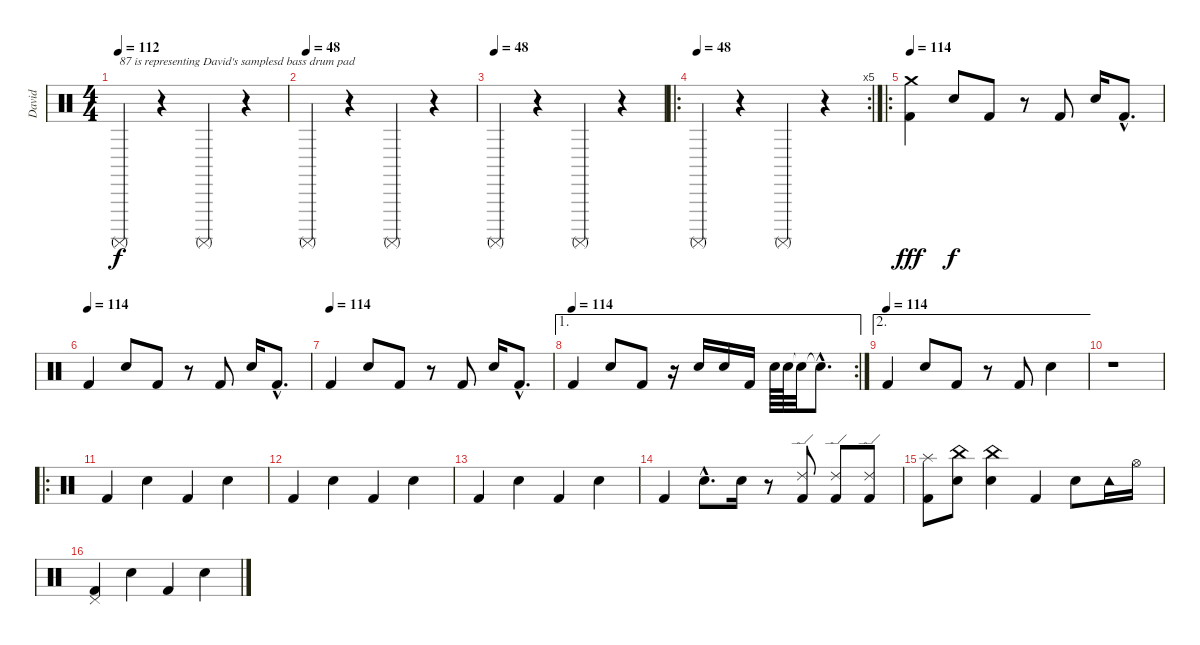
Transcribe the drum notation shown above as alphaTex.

\track ("David" "David") {instrument percussion}
\staff {score}
\articulation defaults
\ts (4 4)
\tempo 112
\tempo 48
\tempo 112
\clef neutral
\ks c "Surdo (mute)".4{txt "87 is representing David's samplesd bass drum pad" dy f}
r.4 "Surdo (mute)".4 r.4 |
\tempo (48)
"Surdo (mute)".4 r.4 "Surdo (mute)".4 r.4 |
\tempo (48)
"Surdo (mute)".4 r.4 "Surdo (mute)".4 r.4 |
\ro
\rc 5
\tempo (48)
"Surdo (mute)".4 r.4 "Surdo (mute)".4 r.4 |
\ro
\tempo 114
("Crash medium (hit)" "Kick (hit) 2").4{dy fff} "Snare (hit) 2".8{dy f} "Kick (hit) 2".8 r.8 "Kick (hit) 2".8 "Snare (hit) 2".16 "Kick (hit) 2"{hac}.8{d} |
\tempo (114)
"Kick (hit) 2".4 "Snare (hit) 2".8 "Kick (hit) 2".8 r.8 "Kick (hit) 2".8 "Snare (hit) 2".16 "Kick (hit) 2"{hac}.8{d} |
\tempo (114)
"Kick (hit) 2".4 "Snare (hit) 2".8 "Kick (hit) 2".8 r.8 "Kick (hit) 2".8 "Snare (hit) 2".16 "Kick (hit) 2"{hac}.8{d} |
\ae 1
\rc 2
\tempo (114)
"Kick (hit) 2".4 "Snare (hit) 2".8 "Kick (hit) 2".8 r.16 "Snare (hit) 2".16 "Snare (hit) 2".16 "Kick (hit) 2".16 "Snare (hit) 2".64 "Snare (hit) 2".64 "Snare (hit)"{t}.32 "Snare (hit) 2"{hac t}.8{d} |
\ae 2
\tempo (114)
"Kick (hit) 2".4 "Snare (hit) 2".8 "Kick (hit) 2".8 r.8 "Kick (hit) 2".8 "Snare (hit) 2".4 |
r.1 |
\ro "Kick (hit) 2".4 "Snare (hit) 2".4 "Kick (hit) 2".4 "Snare (hit) 2".4
|
"Kick (hit) 2".4 "Snare (hit) 2".4 "Kick (hit) 2".4 "Snare (hit) 2".4 |
"Kick (hit) 2".4 "Snare (hit) 2".4 "Kick (hit) 2".4 "Snare (hit) 2".4 |
"Kick (hit) 2".4 "Snare (hit) 2"{hac}.8{d} "Snare (hit) 2".16 r.8 ("Ride (edge) 2" "Kick (hit) 2").8 ("Ride (edge) 2" "Kick (hit) 2").8 ("Ride (edge) 2" "Kick (hit) 2").8 |
("Splash (hit)" "Kick (hit) 2").8 ("China (hit)" "Snare (hit) 2").8 ("China (hit)" "Snare (hit) 2").4 "Kick (hit) 2".4 "Snare (hit) 2".8 "Tambourine (hit)".16 "Hi-Hat (open)".16 |
("Pedal Hi-Hat (hit)" "Kick (hit) 2").4 "Snare (hit) 2".4 "Kick (hit) 2".4 "Snare (hit) 2".4
